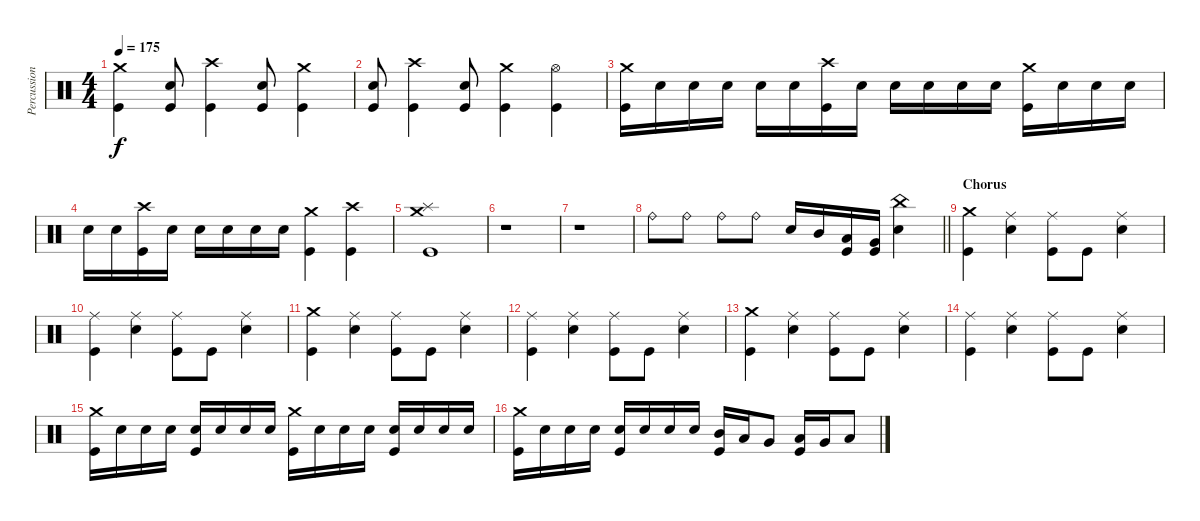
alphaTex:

\track ("Percussion" "Percussion") {instrument percussion}
\staff {score}
\articulation defaults
\ts (4 4)
\tempo 175
\clef neutral
\ks c
("Crash medium (hit)" "Kick (hit)").4{dy f} ("Electric Snare (hit)" "Kick (hit)").8 ("Crash high (hit)" "Kick (hit)").4 ("Electric Snare (hit)" "Kick (hit)").8 ("Crash medium (hit)" "Kick (hit)").4 |
("Electric Snare (hit)" "Kick (hit)").8 ("Crash high (hit)" "Kick (hit)").4 ("Electric Snare (hit)" "Kick (hit)").8 ("Crash medium (hit)" "Kick (hit)").4 ("Hi-Hat (open)" "Kick (hit)").4 |
("Crash medium (hit)" "Kick (hit)").16 "Electric Snare (hit)".16 "Electric Snare (hit)".16 "Electric Snare (hit)".16 "Electric Snare (hit)".16 "Electric Snare (hit)".16 ("Crash high (hit)" "Kick (hit)").16 "Electric Snare (hit)".16 "Electric Snare (hit)".16 "Electric Snare (hit)".16 "Electric Snare (hit)".16 "Electric Snare (hit)".16 ("Crash medium (hit)" "Kick (hit)").16 "Electric Snare (hit)".16 "Electric Snare (hit)".16 "Electric Snare (hit)".16 |
"Electric Snare (hit)".16 "Electric Snare (hit)".16 ("Crash high (hit)" "Kick (hit)").16 "Electric Snare (hit)".16 "Electric Snare (hit)".16 "Electric Snare (hit)".16 "Electric Snare (hit)".16 "Electric Snare (hit)".16 ("Crash medium (hit)" "Kick (hit)").4 ("Crash high (hit)" "Kick (hit)").4 |
("Crash medium (hit)" "Splash (hit)" "Kick (hit)").1 |
r.1 |
r.1 |
\barLineRight lightlight "Ride (bell)".8 "Ride (bell)".8 "Ride (bell)".8 "Ride (bell)".8 "Electric Snare (hit)".16 "Mid Tom (hit)".16
("Low Tom (hit)" "Kick (hit)").16 ("Very Low Tom (hit)" "Kick (hit)").16 ("China (hit)" "Electric Snare (hit)").4 |
\section ("" "Chorus")
("Crash medium (hit)" "Kick (hit)").4 ("Ride (middle)" "Electric Snare (hit)").4 ("Ride (middle)" "Kick (hit)").8 "Kick (hit)".8 ("Ride (middle)" "Electric Snare (hit)").4 |
("Ride (middle)" "Kick (hit)").4 ("Ride (middle)" "Electric Snare (hit)").4 ("Ride (middle)" "Kick (hit)").8 "Kick (hit)".8 ("Ride (middle)" "Electric Snare (hit)").4 |
("Crash medium (hit)" "Kick (hit)").4 ("Ride (middle)" "Electric Snare (hit)").4 ("Ride (middle)" "Kick (hit)").8 "Kick (hit)".8 ("Ride (middle)" "Electric Snare (hit)").4 |
("Ride (middle)" "Kick (hit)").4 ("Ride (middle)" "Electric Snare (hit)").4 ("Ride (middle)" "Kick (hit)").8 "Kick (hit)".8 ("Ride (middle)" "Electric Snare (hit)").4 |
("Crash medium (hit)" "Kick (hit)").4 ("Ride (middle)" "Electric Snare (hit)").4 ("Ride (middle)" "Kick (hit)").8 "Kick (hit)".8 ("Ride (middle)" "Electric Snare (hit)").4 |
("Ride (middle)" "Kick (hit)").4 ("Ride (middle)" "Electric Snare (hit)").4 ("Ride (middle)" "Kick (hit)").8 "Kick (hit)".8 ("Ride (middle)" "Electric Snare (hit)").4 |
("Crash medium (hit)" "Kick (hit)").16 "Electric Snare (hit)".16 "Electric Snare (hit)".16 "Electric Snare (hit)".16 ("Electric Snare (hit)" "Kick (hit)").16 "Electric Snare (hit)".16 "Electric Snare (hit)".16 "Electric Snare (hit)".16 ("Crash medium (hit)" "Kick (hit)").16 "Electric Snare (hit)".16 "Electric Snare (hit)".16 "Electric Snare (hit)".16 ("Electric Snare (hit)" "Kick (hit)").16 "Electric Snare (hit)".16 "Electric Snare (hit)".16 "Electric Snare (hit)".16 |
("Crash medium (hit)" "Kick (hit)").16 "Electric Snare (hit)".16 "Electric Snare (hit)".16 "Electric Snare (hit)".16 ("Electric Snare (hit)" "Kick (hit)").16 "Electric Snare (hit)".16 "Electric Snare (hit)".16 "Electric Snare (hit)".16 ("Mid Tom (hit)" "Kick (hit)").16 "Low Tom (hit)".16 "Very Low Tom (hit)".8 ("Low Tom (hit)" "Kick (hit)").16 "Very Low Tom (hit)".16 "Low Floor Tom (hit)".8
